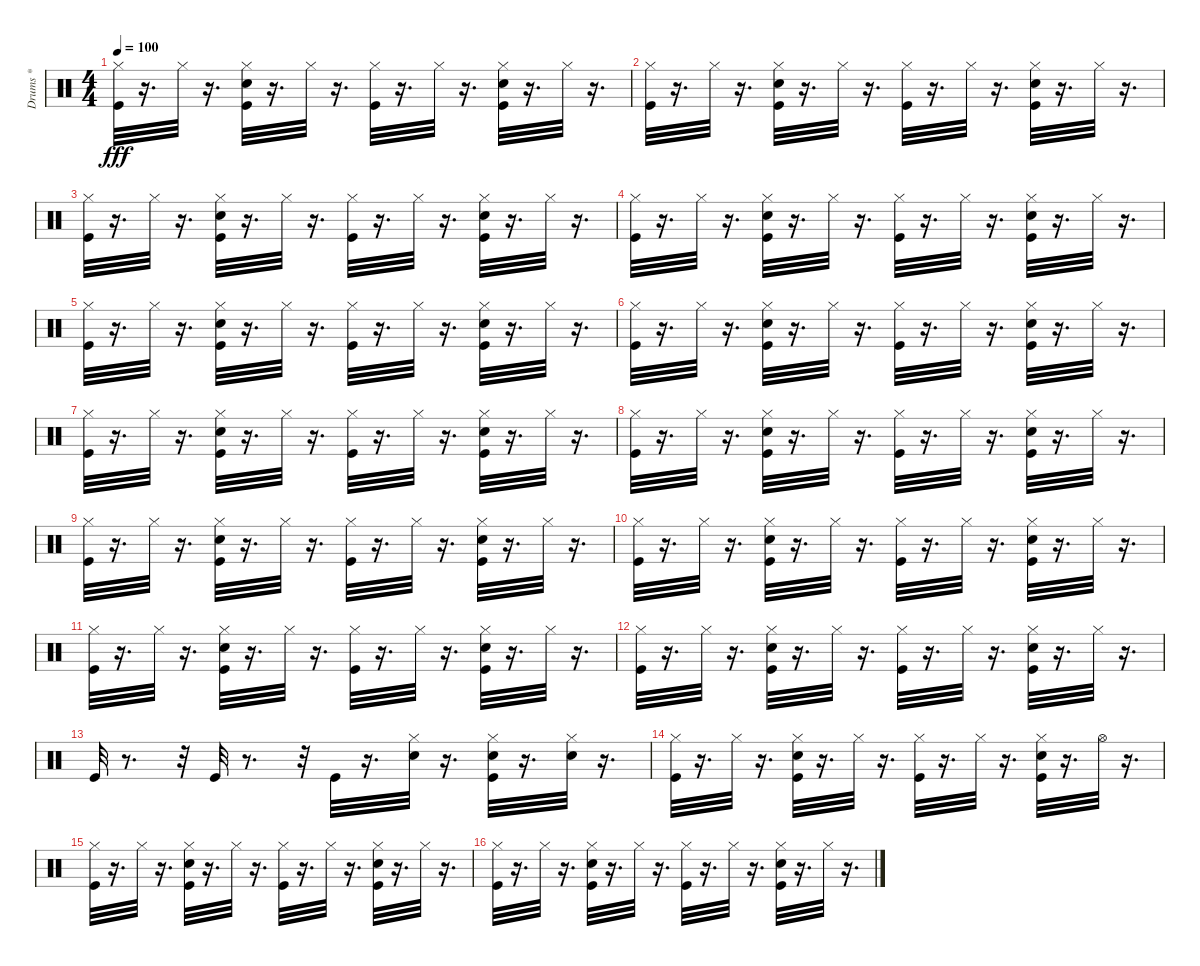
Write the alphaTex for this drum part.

\track ("Drums *" "Drums *") {instrument percussion}
\staff {score}
\articulation defaults
\ts (4 4)
\tempo 100
\clef neutral
\ks c
("Kick (hit)" "Hi-Hat (closed)").32{dy fff} r.16{d} "Hi-Hat (closed)".32 r.16{d} ("Hi-Hat (closed)" "Kick (hit)" "Electric Snare (hit)").32 r.16{d} "Hi-Hat (closed)".32 r.16{d} ("Kick (hit)" "Hi-Hat (closed)").32 r.16{d} "Hi-Hat (closed)".32 r.16{d} ("Hi-Hat (closed)" "Kick (hit)" "Electric Snare (hit)").32 r.16{d} "Hi-Hat (closed)".32 r.16{d} |
("Kick (hit)" "Hi-Hat (closed)").32 r.16{d} "Hi-Hat (closed)".32 r.16{d} ("Kick (hit)" "Hi-Hat (closed)" "Electric Snare (hit)").32 r.16{d} "Hi-Hat (closed)".32 r.16{d} ("Hi-Hat (closed)" "Kick (hit)").32 r.16{d} "Hi-Hat (closed)".32 r.16{d} ("Kick (hit)" "Electric Snare (hit)" "Hi-Hat (closed)").32 r.16{d} "Hi-Hat (closed)".32 r.16{d} |
("Kick (hit)" "Hi-Hat (closed)").32 r.16{d} "Hi-Hat (closed)".32 r.16{d} ("Kick (hit)" "Electric Snare (hit)" "Hi-Hat (closed)").32 r.16{d} "Hi-Hat (closed)".32 r.16{d} ("Kick (hit)" "Hi-Hat (closed)").32 r.16{d} "Hi-Hat (closed)".32 r.16{d} ("Electric Snare (hit)" "Hi-Hat (closed)" "Kick (hit)").32 r.16{d} "Hi-Hat (closed)".32 r.16{d} |
("Kick (hit)" "Hi-Hat (closed)").32 r.16{d} "Hi-Hat (closed)".32 r.16{d} ("Kick (hit)" "Hi-Hat (closed)" "Electric Snare (hit)").32 r.16{d} "Hi-Hat (closed)".32 r.16{d} ("Kick (hit)" "Hi-Hat (closed)").32 r.16{d} "Hi-Hat (closed)".32 r.16{d} ("Hi-Hat (closed)" "Electric Snare (hit)" "Kick (hit)").32 r.16{d} "Hi-Hat (closed)".32 r.16{d} |
("Kick (hit)" "Hi-Hat (closed)").32 r.16{d} "Hi-Hat (closed)".32 r.16{d} ("Electric Snare (hit)" "Hi-Hat (closed)" "Kick (hit)").32 r.16{d} "Hi-Hat (closed)".32 r.16{d} ("Kick (hit)" "Hi-Hat (closed)").32 r.16{d} "Hi-Hat (closed)".32 r.16{d} ("Kick (hit)" "Electric Snare (hit)" "Hi-Hat (closed)").32 r.16{d} "Hi-Hat (closed)".32 r.16{d} |
("Kick (hit)" "Hi-Hat (closed)").32 r.16{d} "Hi-Hat (closed)".32 r.16{d} ("Kick (hit)" "Electric Snare (hit)" "Hi-Hat (closed)").32 r.16{d} "Hi-Hat (closed)".32 r.16{d} ("Hi-Hat (closed)" "Kick (hit)").32 r.16{d} "Hi-Hat (closed)".32 r.16{d} ("Electric Snare (hit)" "Hi-Hat (closed)" "Kick (hit)").32 r.16{d} "Hi-Hat (closed)".32 r.16{d} |
("Kick (hit)" "Hi-Hat (closed)").32 r.16{d} "Hi-Hat (closed)".32 r.16{d} ("Electric Snare (hit)" "Hi-Hat (closed)" "Kick (hit)").32 r.16{d} "Hi-Hat (closed)".32 r.16{d} ("Kick (hit)" "Hi-Hat (closed)").32 r.16{d} "Hi-Hat (closed)".32 r.16{d} ("Kick (hit)" "Electric Snare (hit)" "Hi-Hat (closed)").32 r.16{d} "Hi-Hat (closed)".32 r.16{d} |
("Hi-Hat (closed)" "Kick (hit)").32 r.16{d} "Hi-Hat (closed)".32 r.16{d} ("Kick (hit)" "Electric Snare (hit)" "Hi-Hat (closed)").32 r.16{d} "Hi-Hat (closed)".32 r.16{d} ("Hi-Hat (closed)" "Kick (hit)").32 r.16{d} "Hi-Hat (closed)".32 r.16{d} ("Hi-Hat (closed)" "Kick (hit)" "Electric Snare (hit)").32 r.16{d} "Hi-Hat (closed)".32 r.16{d} |
("Kick (hit)" "Hi-Hat (closed)").32 r.16{d} "Hi-Hat (closed)".32 r.16{d} ("Electric Snare (hit)" "Hi-Hat (closed)" "Kick (hit)").32 r.16{d} "Hi-Hat (closed)".32 r.16{d} ("Kick (hit)" "Hi-Hat (closed)").32 r.16{d} "Hi-Hat (closed)".32 r.16{d} ("Kick (hit)" "Electric Snare (hit)" "Hi-Hat (closed)").32 r.16{d} "Hi-Hat (closed)".32 r.16{d} |
("Kick (hit)" "Hi-Hat (closed)").32 r.16{d} "Hi-Hat (closed)".32 r.16{d} ("Kick (hit)" "Electric Snare (hit)" "Hi-Hat (closed)").32 r.16{d} "Hi-Hat (closed)".32 r.16{d} ("Hi-Hat (closed)" "Kick (hit)").32 r.16{d} "Hi-Hat (closed)".32 r.16{d} ("Kick (hit)" "Electric Snare (hit)" "Hi-Hat (closed)").32 r.16{d} "Hi-Hat (closed)".32 r.16{d} |
("Kick (hit)" "Hi-Hat (closed)").32 r.16{d} "Hi-Hat (closed)".32 r.16{d} ("Kick (hit)" "Hi-Hat (closed)" "Electric Snare (hit)").32 r.16{d} "Hi-Hat (closed)".32 r.16{d} ("Hi-Hat (closed)" "Kick (hit)").32 r.16{d} "Hi-Hat (closed)".32 r.16{d} ("Kick (hit)" "Electric Snare (hit)" "Hi-Hat (closed)").32 r.16{d} "Hi-Hat (closed)".32 r.16{d} |
("Hi-Hat (closed)" "Kick (hit)").32 r.16{d} "Hi-Hat (closed)".32 r.16{d} ("Kick (hit)" "Hi-Hat (closed)" "Electric Snare (hit)").32 r.16{d} "Hi-Hat (closed)".32 r.16{d} ("Kick (hit)" "Hi-Hat (closed)").32 r.16{d} "Hi-Hat (closed)".32 r.16{d} ("Hi-Hat (closed)" "Kick (hit)" "Electric Snare (hit)").32 r.16{d} "Hi-Hat (closed)".32 r.16{d} |
"Kick (hit)".32 r.8{d} r.32 "Kick (hit)".32 r.8{d} r.32 "Kick (hit)".32 r.16{d} ("Hi-Hat (closed)" "Electric Snare (hit)").32 r.16{d} ("Kick (hit)" "Hi-Hat (closed)" "Electric Snare (hit)").32 r.16{d} ("Hi-Hat (closed)" "Electric Snare (hit)").32 r.16{d} |
("Kick (hit)" "Hi-Hat (closed)").32 r.16{d} "Hi-Hat (closed)".32 r.16{d} ("Kick (hit)" "Electric Snare (hit)" "Hi-Hat (closed)").32 r.16{d} "Hi-Hat (closed)".32 r.16{d} ("Kick (hit)" "Hi-Hat (closed)").32 r.16{d} "Hi-Hat (closed)".32 r.16{d} ("Electric Snare (hit)" "Hi-Hat (closed)" "Kick (hit)").32 r.16{d} "Hi-Hat (open)".32 r.16{d} |
("Hi-Hat (closed)" "Kick (hit)").32 r.16{d} "Hi-Hat (closed)".32 r.16{d} ("Electric Snare (hit)" "Hi-Hat (closed)" "Kick (hit)").32 r.16{d} "Hi-Hat (closed)".32 r.16{d} ("Hi-Hat (closed)" "Kick (hit)").32 r.16{d} "Hi-Hat (closed)".32 r.16{d} ("Kick (hit)" "Electric Snare (hit)" "Hi-Hat (closed)").32 r.16{d} "Hi-Hat (closed)".32 r.16{d} |
("Hi-Hat (closed)" "Kick (hit)").32 r.16{d} "Hi-Hat (closed)".32 r.16{d} ("Electric Snare (hit)" "Kick (hit)" "Hi-Hat (closed)").32 r.16{d} "Hi-Hat (closed)".32 r.16{d} ("Hi-Hat (closed)" "Kick (hit)").32 r.16{d} "Hi-Hat (closed)".32 r.16{d} ("Kick (hit)" "Electric Snare (hit)" "Hi-Hat (closed)").32 r.16{d} "Hi-Hat (closed)".32 r.16{d}
